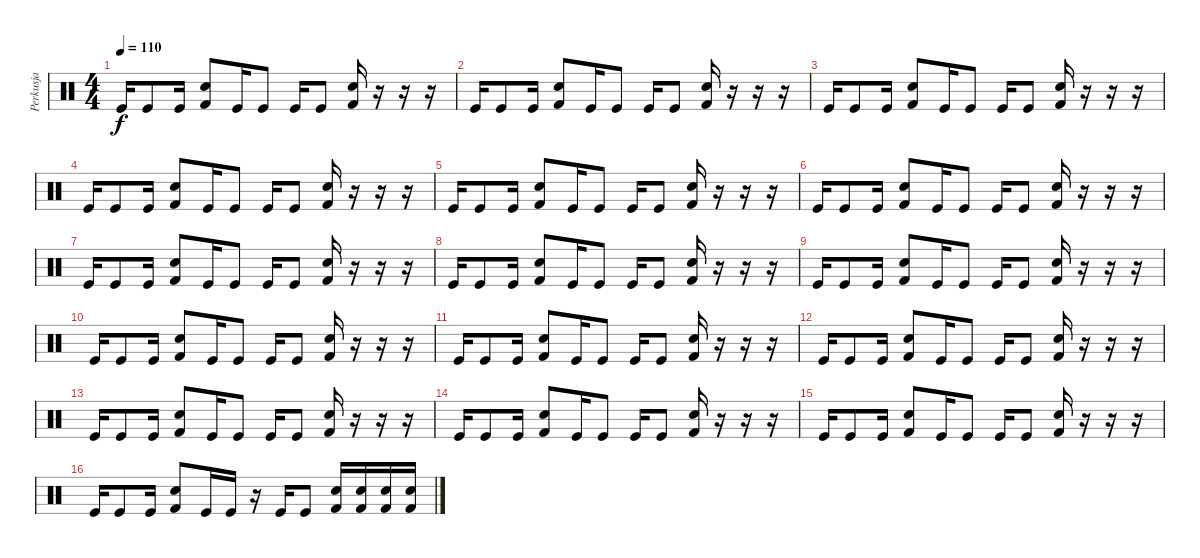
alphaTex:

\track ("Perkusja" "Perkusja") {instrument percussion}
\staff {score}
\articulation defaults
\ts (4 4)
\tempo 110
\clef neutral
\ks c "Kick (hit)".16{dy f volume 16} "Kick (hit)".8 "Kick (hit)".16
("Kick (hit) 2" "Electric Snare (hit)").8 "Kick (hit)".16 "Kick (hit)".8 "Kick (hit)".16 "Kick (hit)".8 ("Kick (hit) 2" "Electric Snare (hit)").16 r.16 r.16 r.16 |
"Kick (hit)".16 "Kick (hit)".8 "Kick (hit)".16 ("Kick (hit) 2" "Electric Snare (hit)").8 "Kick (hit)".16 "Kick (hit)".8 "Kick (hit)".16 "Kick (hit)".8 ("Kick (hit) 2" "Electric Snare (hit)").16 r.16 r.16 r.16 |
"Kick (hit)".16 "Kick (hit)".8 "Kick (hit)".16 ("Kick (hit) 2" "Electric Snare (hit)").8 "Kick (hit)".16 "Kick (hit)".8 "Kick (hit)".16 "Kick (hit)".8 ("Kick (hit) 2" "Electric Snare (hit)").16 r.16 r.16 r.16 |
"Kick (hit)".16 "Kick (hit)".8 "Kick (hit)".16 ("Kick (hit) 2" "Electric Snare (hit)").8 "Kick (hit)".16 "Kick (hit)".8 "Kick (hit)".16 "Kick (hit)".8 ("Kick (hit) 2" "Electric Snare (hit)").16 r.16 r.16 r.16 |
"Kick (hit)".16 "Kick (hit)".8 "Kick (hit)".16 ("Kick (hit) 2" "Electric Snare (hit)").8 "Kick (hit)".16 "Kick (hit)".8 "Kick (hit)".16 "Kick (hit)".8 ("Kick (hit) 2" "Electric Snare (hit)").16 r.16 r.16 r.16 |
"Kick (hit)".16 "Kick (hit)".8 "Kick (hit)".16 ("Kick (hit) 2" "Electric Snare (hit)").8 "Kick (hit)".16 "Kick (hit)".8 "Kick (hit)".16 "Kick (hit)".8 ("Kick (hit) 2" "Electric Snare (hit)").16 r.16 r.16 r.16 |
"Kick (hit)".16 "Kick (hit)".8 "Kick (hit)".16 ("Kick (hit) 2" "Electric Snare (hit)").8 "Kick (hit)".16 "Kick (hit)".8 "Kick (hit)".16 "Kick (hit)".8 ("Kick (hit) 2" "Electric Snare (hit)").16 r.16 r.16 r.16 |
"Kick (hit)".16 "Kick (hit)".8 "Kick (hit)".16 ("Kick (hit) 2" "Electric Snare (hit)").8 "Kick (hit)".16 "Kick (hit)".8 "Kick (hit)".16 "Kick (hit)".8 ("Kick (hit) 2" "Electric Snare (hit)").16 r.16 r.16 r.16 |
"Kick (hit)".16 "Kick (hit)".8 "Kick (hit)".16 ("Kick (hit) 2" "Electric Snare (hit)").8 "Kick (hit)".16 "Kick (hit)".8 "Kick (hit)".16 "Kick (hit)".8 ("Kick (hit) 2" "Electric Snare (hit)").16 r.16 r.16 r.16 |
"Kick (hit)".16 "Kick (hit)".8 "Kick (hit)".16 ("Kick (hit) 2" "Electric Snare (hit)").8 "Kick (hit)".16 "Kick (hit)".8 "Kick (hit)".16 "Kick (hit)".8 ("Kick (hit) 2" "Electric Snare (hit)").16 r.16 r.16 r.16 |
"Kick (hit)".16 "Kick (hit)".8 "Kick (hit)".16 ("Kick (hit) 2" "Electric Snare (hit)").8 "Kick (hit)".16 "Kick (hit)".8 "Kick (hit)".16 "Kick (hit)".8 ("Kick (hit) 2" "Electric Snare (hit)").16 r.16 r.16 r.16 |
"Kick (hit)".16 "Kick (hit)".8 "Kick (hit)".16 ("Kick (hit) 2" "Electric Snare (hit)").8 "Kick (hit)".16 "Kick (hit)".8 "Kick (hit)".16 "Kick (hit)".8 ("Kick (hit) 2" "Electric Snare (hit)").16 r.16 r.16 r.16 |
"Kick (hit)".16 "Kick (hit)".8 "Kick (hit)".16 ("Kick (hit) 2" "Electric Snare (hit)").8 "Kick (hit)".16 "Kick (hit)".8 "Kick (hit)".16 "Kick (hit)".8 ("Kick (hit) 2" "Electric Snare (hit)").16 r.16 r.16 r.16 |
"Kick (hit)".16 "Kick (hit)".8 "Kick (hit)".16 ("Kick (hit) 2" "Electric Snare (hit)").8 "Kick (hit)".16 "Kick (hit)".8 "Kick (hit)".16 "Kick (hit)".8 ("Kick (hit) 2" "Electric Snare (hit)").16 r.16 r.16 r.16 |
"Kick (hit)".16 "Kick (hit)".8 "Kick (hit)".16 ("Kick (hit) 2" "Electric Snare (hit)").8 "Kick (hit)".16 "Kick (hit)".8 "Kick (hit)".16 "Kick (hit)".8 ("Kick (hit) 2" "Electric Snare (hit)").16 r.16 r.16 r.16 |
"Kick (hit)".16 "Kick (hit)".8 "Kick (hit)".16 ("Kick (hit) 2" "Electric Snare (hit)").8 "Kick (hit)".16 "Kick (hit)".16 r.16 "Kick (hit)".16 "Kick (hit)".8 ("Kick (hit) 2" "Electric Snare (hit)").16 ("Kick (hit) 2" "Electric Snare (hit)").16 ("Kick (hit) 2" "Electric Snare (hit)").16 ("Kick (hit) 2" "Electric Snare (hit)").16
